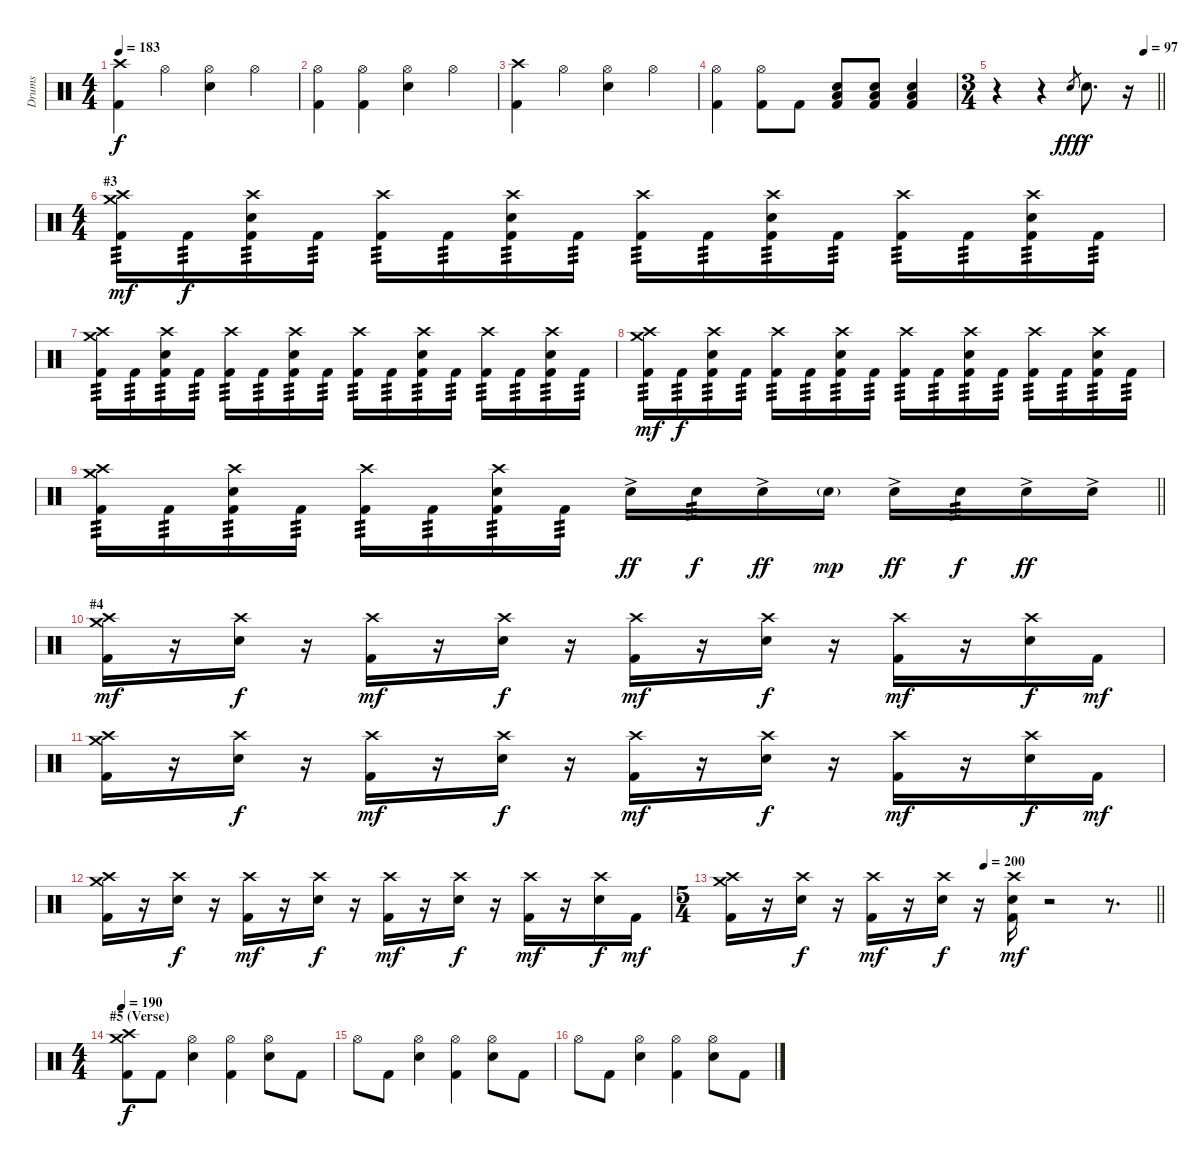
\track ("Drums" "Drums") {instrument percussion}
\staff {score}
\articulation defaults
\ts (4 4)
\tempo 183
\clef neutral
\ks c
("Crash high (hit)" "Kick (hit) 2").4{dy f} "Hi-Hat (open)".4 ("Hi-Hat (open)" "Electric Snare (hit)").4 "Hi-Hat (open)".4 |
("Hi-Hat (open)" "Kick (hit) 2").4 ("Hi-Hat (open)" "Kick (hit) 2").4 ("Hi-Hat (open)" "Electric Snare (hit)").4 "Hi-Hat (open)".4 |
("Crash high (hit)" "Kick (hit) 2").4 "Hi-Hat (open)".4 ("Hi-Hat (open)" "Electric Snare (hit)").4 "Hi-Hat (open)".4 |
("Hi-Hat (open)" "Kick (hit) 2").4 ("Hi-Hat (open)" "Kick (hit) 2").8 "Kick (hit) 2".8 ("Electric Snare (hit)" "Low Floor Tom (hit)" "Kick (hit) 2").8 ("Electric Snare (hit)" "Low Floor Tom (hit)" "Kick (hit) 2").8 ("Electric Snare (hit)" "Low Floor Tom (hit)" "Kick (hit) 2").4 |
\ts (3 4)
\tempo (97 0.9166666666666666)
\barLineRight lightlight
r.4 r.4 "Electric Snare (hit)".8{gr dy fff} "Electric Snare (hit)".8{d dy f} r.16 |
\ts (4 4)
\section ("" "#3")
("Crash high (hit)" "Crash medium (hit)" "Kick (hit) 2").16{tp 3 dy mf} "Kick (hit) 2".16{tp 3 dy f} ("Crash high (hit)" "Electric Snare (hit)" "Kick (hit) 2").16{tp 3} "Kick (hit) 2".16{tp 3} ("Crash high (hit)" "Kick (hit) 2").16{tp 3} "Kick (hit) 2".16{tp 3} ("Crash high (hit)" "Electric Snare (hit)" "Kick (hit) 2").16{tp 3} "Kick (hit) 2".16{tp 3} ("Crash high (hit)" "Kick (hit) 2").16{tp 3} "Kick (hit) 2".16{tp 3} ("Crash high (hit)" "Electric Snare (hit)" "Kick (hit) 2").16{tp 3} "Kick (hit) 2".16{tp 3} ("Crash high (hit)" "Kick (hit) 2").16{tp 3} "Kick (hit) 2".16{tp 3} ("Crash high (hit)" "Electric Snare (hit)" "Kick (hit) 2").16{tp 3} "Kick (hit) 2".16{tp 3} |
("Crash high (hit)" "Crash medium (hit)" "Kick (hit) 2").16{tp 3} "Kick (hit) 2".16{tp 3} ("Crash high (hit)" "Electric Snare (hit)" "Kick (hit) 2").16{tp 3} "Kick (hit) 2".16{tp 3} ("Crash high (hit)" "Kick (hit) 2").16{tp 3} "Kick (hit) 2".16{tp 3} ("Crash high (hit)" "Electric Snare (hit)" "Kick (hit) 2").16{tp 3} "Kick (hit) 2".16{tp 3} ("Crash high (hit)" "Kick (hit) 2").16{tp 3} "Kick (hit) 2".16{tp 3} ("Crash high (hit)" "Electric Snare (hit)" "Kick (hit) 2").16{tp 3} "Kick (hit) 2".16{tp 3} ("Crash high (hit)" "Kick (hit) 2").16{tp 3} "Kick (hit) 2".16{tp 3} ("Crash high (hit)" "Electric Snare (hit)" "Kick (hit) 2").16{tp 3} "Kick (hit) 2".16{tp 3} |
("Crash high (hit)" "Crash medium (hit)" "Kick (hit) 2").16{tp 3 dy mf} "Kick (hit) 2".16{tp 3 dy f} ("Crash high (hit)" "Electric Snare (hit)" "Kick (hit) 2").16{tp 3} "Kick (hit) 2".16{tp 3} ("Crash high (hit)" "Kick (hit) 2").16{tp 3} "Kick (hit) 2".16{tp 3} ("Crash high (hit)" "Electric Snare (hit)" "Kick (hit) 2").16{tp 3} "Kick (hit) 2".16{tp 3} ("Crash high (hit)" "Kick (hit) 2").16{tp 3} "Kick (hit) 2".16{tp 3} ("Crash high (hit)" "Electric Snare (hit)" "Kick (hit) 2").16{tp 3} "Kick (hit) 2".16{tp 3} ("Crash high (hit)" "Kick (hit) 2").16{tp 3} "Kick (hit) 2".16{tp 3} ("Crash high (hit)" "Electric Snare (hit)" "Kick (hit) 2").16{tp 3} "Kick (hit) 2".16{tp 3} |
\barLineRight lightlight
("Crash high (hit)" "Crash medium (hit)" "Kick (hit) 2").16{tp 3} "Kick (hit) 2".16{tp 3} ("Crash high (hit)" "Electric Snare (hit)" "Kick (hit) 2").16{tp 3} "Kick (hit) 2".16{tp 3} ("Crash high (hit)" "Kick (hit) 2").16{tp 3} "Kick (hit) 2".16{tp 3} ("Crash high (hit)" "Electric Snare (hit)" "Kick (hit) 2").16{tp 3} "Kick (hit) 2".16{tp 3} "Electric Snare (hit)"{ac}.16{dy ff} "Electric Snare (hit)".16{tp 3 dy f} "Electric Snare (hit)"{ac}.16{dy ff} "Electric Snare (hit)"{g}.16{dy mp} "Electric Snare (hit)"{ac}.16{dy ff} "Electric Snare (hit)".16{tp 3 dy f} "Electric Snare (hit)"{ac}.16{dy ff} "Electric Snare (hit)"{ac}.16 |
\section ("" "#4")
("Crash high (hit)" "Crash medium (hit)" "Kick (hit) 2").16{dy mf} r.16 ("Crash high (hit)" "Electric Snare (hit)").16{dy f} r.16 ("Crash high (hit)" "Kick (hit) 2").16{dy mf} r.16 ("Crash high (hit)" "Electric Snare (hit)").16{dy f} r.16 ("Crash high (hit)" "Kick (hit) 2").16{dy mf} r.16 ("Crash high (hit)" "Electric Snare (hit)").16{dy f} r.16 ("Crash high (hit)" "Kick (hit) 2").16{dy mf} r.16 ("Crash high (hit)" "Electric Snare (hit)").16{dy f} "Kick (hit) 2".16{dy mf} |
("Crash high (hit)" "Crash medium (hit)" "Kick (hit) 2").16 r.16 ("Crash high (hit)" "Electric Snare (hit)").16{dy f} r.16 ("Crash high (hit)" "Kick (hit) 2").16{dy mf} r.16 ("Crash high (hit)" "Electric Snare (hit)").16{dy f} r.16 ("Crash high (hit)" "Kick (hit) 2").16{dy mf} r.16 ("Crash high (hit)" "Electric Snare (hit)").16{dy f} r.16 ("Crash high (hit)" "Kick (hit) 2").16{dy mf} r.16 ("Crash high (hit)" "Electric Snare (hit)").16{dy f} "Kick (hit) 2".16{dy mf} |
("Crash high (hit)" "Crash medium (hit)" "Kick (hit) 2").16 r.16 ("Crash high (hit)" "Electric Snare (hit)").16{dy f} r.16 ("Crash high (hit)" "Kick (hit) 2").16{dy mf} r.16 ("Crash high (hit)" "Electric Snare (hit)").16{dy f} r.16 ("Crash high (hit)" "Kick (hit) 2").16{dy mf} r.16 ("Crash high (hit)" "Electric Snare (hit)").16{dy f} r.16 ("Crash high (hit)" "Kick (hit) 2").16{dy mf} r.16 ("Crash high (hit)" "Electric Snare (hit)").16{dy f} "Kick (hit) 2".16{dy mf} |
\ts (5 4)
\tempo (200 0.6)
\barLineRight lightlight
("Crash high (hit)" "Crash medium (hit)" "Kick (hit) 2").16 r.16 ("Crash high (hit)" "Electric Snare (hit)").16{dy f} r.16 ("Crash high (hit)" "Kick (hit) 2").16{dy mf} r.16 ("Crash high (hit)" "Electric Snare (hit)").16{dy f} r.16 ("Crash high (hit)" "Electric Snare (hit)" "Kick (hit) 2").16{dy mf} r.2 r.8{d} |
\ts (4 4)
\section ("" "#5 (Verse)")
\tempo 97
\tempo 190
("Crash high (hit)" "Crash medium (hit)" "Kick (hit) 2").8{dy f} "Kick (hit) 2".8 ("Hi-Hat (open)" "Electric Snare (hit)").4 ("Hi-Hat (open)" "Kick (hit) 2").4 ("Hi-Hat (open)" "Electric Snare (hit)").8 "Kick (hit) 2".8 |
"Hi-Hat (open)".8 "Kick (hit) 2".8 ("Hi-Hat (open)" "Electric Snare (hit)").4 ("Hi-Hat (open)" "Kick (hit) 2").4 ("Hi-Hat (open)" "Electric Snare (hit)").8 "Kick (hit) 2".8 |
"Hi-Hat (open)".8 "Kick (hit) 2".8 ("Hi-Hat (open)" "Electric Snare (hit)").4 ("Hi-Hat (open)" "Kick (hit) 2").4 ("Hi-Hat (open)" "Electric Snare (hit)").8 "Kick (hit) 2".8
